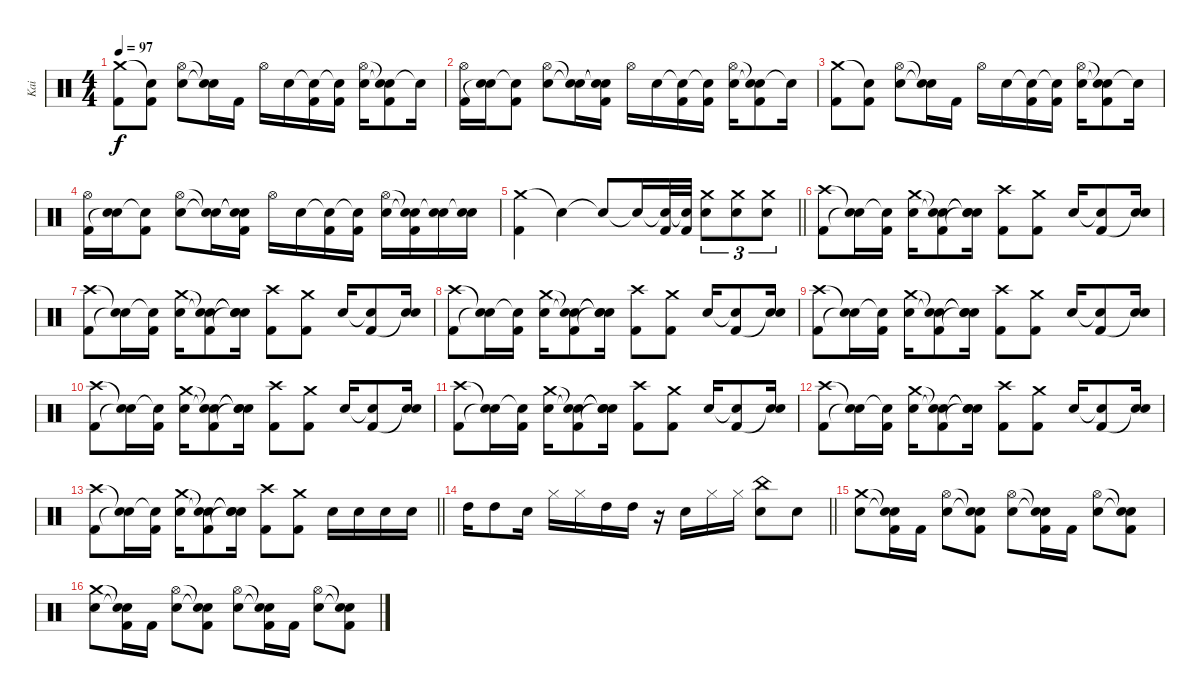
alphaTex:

\track ("Kai" "Kai") {instrument percussion}
\staff {score}
\articulation defaults
\ts (4 4)
\tempo 97
\clef neutral
\ks c
("Crash medium (hit)" "Kick (hit) 2").8{dy f} ("Snare (hit)"{t} "Kick (hit) 2").8 ("Hi-Hat (open)" "Snare (hit) 2").8 ("Snare (hit)"{t} "Snare (hit)"{t}).16 "Kick (hit) 2".16 "Hi-Hat (open)".16 "Snare (hit) 2".16 ("Snare (hit)"{t} "Kick (hit) 2").16 ("Snare (hit)"{t} "Kick (hit) 2").16 ("Hi-Hat (open)" "Snare (hit) 2").16 ("Snare (hit)"{t} "Snare (hit)"{t} "Kick (hit) 2").8 "Snare (hit)"{t}.16 |
("Hi-Hat (open)" "Kick (hit) 2").16 ("Snare (hit) 2" "Snare (hit)"{t}).16 ("Snare (hit)"{t} "Kick (hit) 2").8 ("Hi-Hat (open)" "Snare (hit) 2").8 ("Snare (hit)"{t} "Snare (hit)"{t}).16 ("Snare (hit)"{t} "Snare (hit)"{t} "Kick (hit) 2").16 "Hi-Hat (open)".16 "Snare (hit) 2".16 ("Snare (hit)"{t} "Kick (hit) 2").16 ("Snare (hit)"{t} "Kick (hit) 2").16 ("Hi-Hat (open)" "Snare (hit) 2").16 ("Snare (hit)"{t} "Snare (hit)"{t} "Kick (hit) 2").8 "Snare (hit)"{t}.16 |
("Crash medium (hit)" "Kick (hit) 2").8 ("Snare (hit)"{t} "Kick (hit) 2").8 ("Hi-Hat (open)" "Snare (hit) 2").8 ("Snare (hit)"{t} "Snare (hit)"{t}).16 "Kick (hit) 2".16 "Hi-Hat (open)".16 "Snare (hit) 2".16 ("Snare (hit)"{t} "Kick (hit) 2").16 ("Snare (hit)"{t} "Kick (hit) 2").16 ("Hi-Hat (open)" "Snare (hit) 2").16 ("Snare (hit)"{t} "Snare (hit)"{t} "Kick (hit) 2").8 "Snare (hit)"{t}.16 |
("Hi-Hat (open)" "Kick (hit) 2").16 ("Snare (hit) 2" "Snare (hit)"{t}).16 ("Snare (hit)"{t} "Kick (hit) 2").8 ("Hi-Hat (open)" "Snare (hit) 2").8 ("Snare (hit)"{t} "Snare (hit)"{t}).16 ("Snare (hit)"{t} "Snare (hit)"{t} "Kick (hit) 2").16 "Hi-Hat (open)".16 "Snare (hit) 2".16 ("Snare (hit)"{t} "Kick (hit) 2").16 ("Snare (hit)"{t} "Kick (hit) 2").16 ("Hi-Hat (open)" "Snare (hit) 2").16 ("Snare (hit)"{t} "Snare (hit)"{t} "Kick (hit) 2").16 ("Snare (hit) 2" "Snare (hit)"{t}).16 ("Snare (hit) 2" "Snare (hit)"{t}).16 |
\barLineRight lightlight
("Crash medium (hit)" "Kick (hit) 2").4 "Snare (hit)"{t}.4 "Snare (hit)"{t}.8 "Snare (hit)"{t}.16 ("Snare (hit)"{t} "Kick (hit) 2").32 ("Snare (hit)"{t} "Kick (hit) 2").32 ("Crash medium (hit)" "Snare (hit) 2").8{tu (3 2)} ("Crash medium (hit)" "Snare (hit) 2").8{tu (3 2)} ("Crash medium (hit)" "Snare (hit) 2").8{tu (3 2)} |
("Crash high (hit)" "Kick (hit) 2").8 ("Snare (hit)"{t} "Snare (hit)"{t}).16 ("Snare (hit)"{t} "Kick (hit) 2").16 ("Crash medium (hit)" "Snare (hit) 2").16 ("Snare (hit)"{t} "Snare (hit)"{t} "Kick (hit) 2").8 ("Snare (hit)"{t} "Snare (hit)"{t} "Snare (hit)"{t}).16 ("Crash high (hit)" "Kick (hit) 2").8 ("Crash medium (hit)" "Kick (hit) 2").8 "Snare (hit) 2".16 ("Snare (hit)"{t} "Kick (hit) 2").8 ("Snare (hit) 2" "Snare (hit)"{t}).16 |
("Crash high (hit)" "Kick (hit) 2").8 ("Snare (hit)"{t} "Snare (hit)"{t}).16 ("Snare (hit)"{t} "Kick (hit) 2").16 ("Crash medium (hit)" "Snare (hit) 2").16 ("Snare (hit)"{t} "Snare (hit)"{t} "Kick (hit) 2").8 ("Snare (hit)"{t} "Snare (hit)"{t} "Snare (hit)"{t}).16 ("Crash high (hit)" "Kick (hit) 2").8 ("Crash medium (hit)" "Kick (hit) 2").8 "Snare (hit) 2".16 ("Snare (hit)"{t} "Kick (hit) 2").8 ("Snare (hit) 2" "Snare (hit)"{t}).16 |
("Crash high (hit)" "Kick (hit) 2").8 ("Snare (hit)"{t} "Snare (hit)"{t}).16 ("Snare (hit)"{t} "Kick (hit) 2").16 ("Crash medium (hit)" "Snare (hit) 2").16 ("Snare (hit)"{t} "Snare (hit)"{t} "Kick (hit) 2").8 ("Snare (hit)"{t} "Snare (hit)"{t} "Snare (hit)"{t}).16 ("Crash high (hit)" "Kick (hit) 2").8 ("Crash medium (hit)" "Kick (hit) 2").8 "Snare (hit) 2".16 ("Snare (hit)"{t} "Kick (hit) 2").8 ("Snare (hit) 2" "Snare (hit)"{t}).16 |
("Crash high (hit)" "Kick (hit) 2").8 ("Snare (hit)"{t} "Snare (hit)"{t}).16 ("Snare (hit)"{t} "Kick (hit) 2").16 ("Crash medium (hit)" "Snare (hit) 2").16 ("Snare (hit)"{t} "Snare (hit)"{t} "Kick (hit) 2").8 ("Snare (hit)"{t} "Snare (hit)"{t} "Snare (hit)"{t}).16 ("Crash high (hit)" "Kick (hit) 2").8 ("Crash medium (hit)" "Kick (hit) 2").8 "Snare (hit) 2".16 ("Snare (hit)"{t} "Kick (hit) 2").8 ("Snare (hit) 2" "Snare (hit)"{t}).16 |
("Crash high (hit)" "Kick (hit) 2").8 ("Snare (hit)"{t} "Snare (hit)"{t}).16 ("Snare (hit)"{t} "Kick (hit) 2").16 ("Crash medium (hit)" "Snare (hit) 2").16 ("Snare (hit)"{t} "Snare (hit)"{t} "Kick (hit) 2").8 ("Snare (hit)"{t} "Snare (hit)"{t} "Snare (hit)"{t}).16 ("Crash high (hit)" "Kick (hit) 2").8 ("Crash medium (hit)" "Kick (hit) 2").8 "Snare (hit) 2".16 ("Snare (hit)"{t} "Kick (hit) 2").8 ("Snare (hit) 2" "Snare (hit)"{t}).16 |
("Crash high (hit)" "Kick (hit) 2").8 ("Snare (hit)"{t} "Snare (hit)"{t}).16 ("Snare (hit)"{t} "Kick (hit) 2").16 ("Crash medium (hit)" "Snare (hit) 2").16 ("Snare (hit)"{t} "Snare (hit)"{t} "Kick (hit) 2").8 ("Snare (hit)"{t} "Snare (hit)"{t} "Snare (hit)"{t}).16 ("Crash high (hit)" "Kick (hit) 2").8 ("Crash medium (hit)" "Kick (hit) 2").8 "Snare (hit) 2".16 ("Snare (hit)"{t} "Kick (hit) 2").8 ("Snare (hit) 2" "Snare (hit)"{t}).16 |
("Crash high (hit)" "Kick (hit) 2").8 ("Snare (hit)"{t} "Snare (hit)"{t}).16 ("Snare (hit)"{t} "Kick (hit) 2").16 ("Crash medium (hit)" "Snare (hit) 2").16 ("Snare (hit)"{t} "Snare (hit)"{t} "Kick (hit) 2").8 ("Snare (hit)"{t} "Snare (hit)"{t} "Snare (hit)"{t}).16 ("Crash high (hit)" "Kick (hit) 2").8 ("Crash medium (hit)" "Kick (hit) 2").8 "Snare (hit) 2".16 ("Snare (hit)"{t} "Kick (hit) 2").8 ("Snare (hit) 2" "Snare (hit)"{t}).16 |
\barLineRight lightlight
("Crash high (hit)" "Kick (hit) 2").8 ("Snare (hit)"{t} "Snare (hit)"{t}).16 ("Snare (hit)"{t} "Kick (hit) 2").16 ("Crash medium (hit)" "Snare (hit) 2").16 ("Snare (hit)"{t} "Snare (hit)"{t} "Kick (hit) 2").8 ("Snare (hit)"{t} "Snare (hit)"{t} "Snare (hit)"{t}).16 ("Crash high (hit)" "Kick (hit) 2").8 ("Crash medium (hit)" "Kick (hit) 2").8 "Snare (hit) 2".16 "Snare (hit) 2".16 "Snare (hit) 2".16 "Snare (hit) 2".16 |
\barLineRight lightlight "High Tom (hit)".16 "High Tom (hit)".8 "Snare (hit) 2".16 "Hi-Hat (closed)".16 "Hi-Hat (closed)".16 "High Tom (hit)".16 "High Tom (hit)".16
r.16 "Snare (hit) 2".16 "Hi-Hat (closed)".16 "Hi-Hat (closed)".16 ("China (hit)" "Snare (hit) 2").8 "Snare (hit) 2".8 |
("Crash medium (hit)" "Snare (hit) 2").8 ("Snare (hit)"{t} "Snare (hit)"{t} "Kick (hit) 2").16 "Kick (hit) 2".16 ("Hi-Hat (open)" "Snare (hit) 2").8 ("Snare (hit)"{t} "Snare (hit)"{t} "Kick (hit) 2").8 ("Hi-Hat (open)" "Snare (hit) 2").8 ("Snare (hit)"{t} "Snare (hit)"{t} "Kick (hit) 2").16 "Kick (hit) 2".16 ("Hi-Hat (open)" "Snare (hit) 2").8 ("Snare (hit)"{t} "Snare (hit)"{t} "Kick (hit) 2").8 |
("Crash medium (hit)" "Snare (hit) 2").8 ("Snare (hit)"{t} "Snare (hit)"{t} "Kick (hit) 2").16 "Kick (hit) 2".16 ("Hi-Hat (open)" "Snare (hit) 2").8 ("Snare (hit)"{t} "Snare (hit)"{t} "Kick (hit) 2").8 ("Hi-Hat (open)" "Snare (hit) 2").8 ("Snare (hit)"{t} "Snare (hit)"{t} "Kick (hit) 2").16 "Kick (hit) 2".16 ("Hi-Hat (open)" "Snare (hit) 2").8 ("Snare (hit)"{t} "Snare (hit)"{t} "Kick (hit) 2").8
